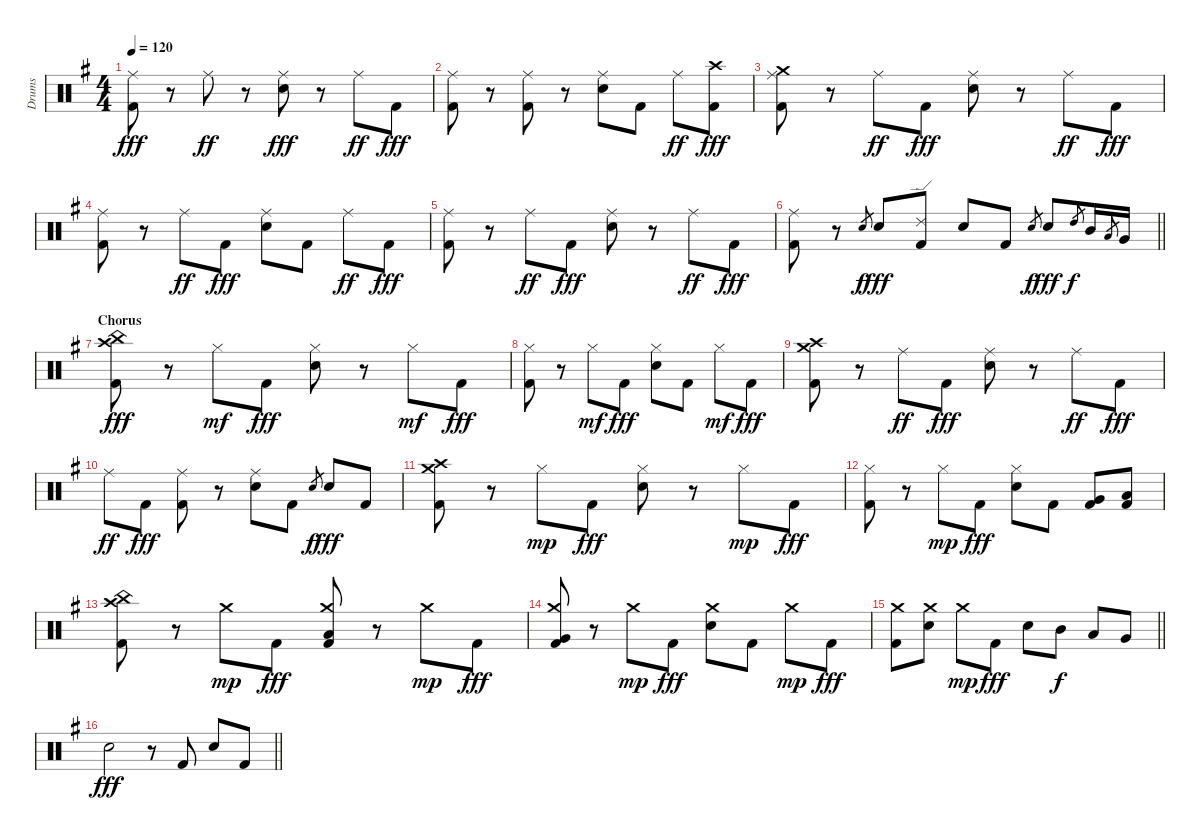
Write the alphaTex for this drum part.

\track ("Drums" "Drums") {instrument percussion}
\staff {score}
\articulation defaults
\ts (4 4)
\tempo 120
\clef neutral
\ks g
("Ride (middle)" "Kick (hit) 2").8{dy fff} r.8 "Ride (middle)".8{dy ff} r.8 ("Ride (middle)" "Electric Snare (hit)").8{dy fff} r.8 "Ride (middle)".8{dy ff} "Kick (hit) 2".8{dy fff} |
("Ride (middle)" "Kick (hit) 2").8 r.8 ("Ride (middle)" "Kick (hit) 2").8 r.8 ("Ride (middle)" "Electric Snare (hit)").8 "Kick (hit) 2".8 "Ride (middle)".8{dy ff} ("Crash high (hit)" "Kick (hit) 2").8{dy fff} |
("Ride (middle)" "Crash medium (hit)" "Kick (hit) 2").8 r.8 "Ride (middle)".8{dy ff} "Kick (hit) 2".8{dy fff} ("Ride (middle)" "Electric Snare (hit)").8 r.8 "Ride (middle)".8{dy ff} "Kick (hit) 2".8{dy fff} |
("Ride (middle)" "Kick (hit) 2").8 r.8 "Ride (middle)".8{dy ff} "Kick (hit) 2".8{dy fff} ("Ride (middle)" "Electric Snare (hit)").8 "Kick (hit) 2".8 "Ride (middle)".8{dy ff} "Kick (hit) 2".8{dy fff} |
("Ride (middle)" "Kick (hit) 2").8 r.8 "Ride (middle)".8{dy ff} "Kick (hit) 2".8{dy fff} ("Ride (middle)" "Electric Snare (hit)").8 r.8 "Ride (middle)".8{dy ff} "Kick (hit) 2".8{dy fff} |
\barLineRight lightlight
("Ride (middle)" "Kick (hit) 2").8 r.8 "Electric Snare (hit)".8{gr dy f} "Electric Snare (hit)".8{dy fff} ("Ride (edge) 2" "Kick (hit) 2").8 "Electric Snare (hit)".8 "Kick (hit) 2".8 "Electric Snare (hit)".8{gr dy f} "Electric Snare (hit)".8{dy fff} "High Tom (hit)".8{gr dy f} "Mid Tom (hit)".16 "Low Tom (hit)".8{gr} "Very Low Tom (hit)".16 |
\section ("" "Chorus")
("Crash high (hit)" "China (hit)" "Kick (hit) 2").8{dy fff} r.8 "Hi-Hat (closed)".8{dy mf} "Kick (hit) 2".8{dy fff} ("Hi-Hat (closed)" "Electric Snare (hit)").8 r.8 "Hi-Hat (closed)".8{dy mf} "Kick (hit) 2".8{dy fff} |
("Hi-Hat (closed)" "Kick (hit) 2").8 r.8 "Hi-Hat (closed)".8{dy mf} "Kick (hit) 2".8{dy fff} ("Hi-Hat (closed)" "Electric Snare (hit)").8 "Kick (hit) 2".8 "Hi-Hat (closed)".8{dy mf} "Kick (hit) 2".8{dy fff} |
("Crash high (hit)" "Crash medium (hit)" "Kick (hit) 2").8 r.8 "Ride (middle)".8{dy ff} "Kick (hit) 2".8{dy fff} ("Ride (middle)" "Electric Snare (hit)").8 r.8 "Ride (middle)".8{dy ff} "Kick (hit) 2".8{dy fff} |
"Ride (middle)".8{dy ff} "Kick (hit) 2".8{dy fff} ("Ride (middle)" "Kick (hit) 2").8 r.8 ("Ride (middle)" "Electric Snare (hit)").8 "Kick (hit) 2".8 "Electric Snare (hit)".8{gr dy f} "Electric Snare (hit)".8{dy fff} "Kick (hit) 2".8 |
("Crash medium (hit)" "Crash high (hit)" "Kick (hit) 2").8 r.8 "Hi-Hat (closed)".8{dy mp} "Kick (hit) 2".8{dy fff} ("Hi-Hat (closed)" "Electric Snare (hit)").8 r.8 "Hi-Hat (closed)".8{dy mp} "Kick (hit) 2".8{dy fff} |
("Hi-Hat (closed)" "Kick (hit) 2").8 r.8 "Hi-Hat (closed)".8{dy mp} "Kick (hit) 2".8{dy fff} ("Hi-Hat (closed)" "Electric Snare (hit)").8 "Kick (hit) 2".8 ("Very Low Tom (hit)" "Kick (hit) 2").8 ("Low Floor Tom (hit)" "Kick (hit) 2").8 |
("Crash high (hit)" "China (hit)" "Kick (hit) 2").8 r.8 "Crash medium (hit)".8{dy mp} "Kick (hit) 2".8{dy fff} ("Crash medium (hit)" "Low Tom (hit)" "Kick (hit) 2").8 r.8 "Crash medium (hit)".8{dy mp} "Kick (hit) 2".8{dy fff} |
("Crash medium (hit)" "Very Low Tom (hit)" "Kick (hit) 2").8 r.8 "Crash medium (hit)".8{dy mp} "Kick (hit) 2".8{dy fff} ("Crash medium (hit)" "Electric Snare (hit)").8 "Kick (hit) 2".8 "Crash medium (hit)".8{dy mp} "Kick (hit) 2".8{dy fff} |
\barLineRight lightlight
("Crash medium (hit)" "Kick (hit) 2").8 ("Crash medium (hit)" "Electric Snare (hit)").8 "Crash medium (hit)".8{dy mp} "Kick (hit) 2".8{dy fff} "Electric Snare (hit)".8 "Mid Tom (hit)".8{dy f} "Low Tom (hit)".8 "Very Low Tom (hit)".8 |
\barLineRight lightlight "Electric Snare (hit)".2{dy fff}
r.8 "Kick (hit) 2".8 "Electric Snare (hit)".8 "Kick (hit) 2".8
